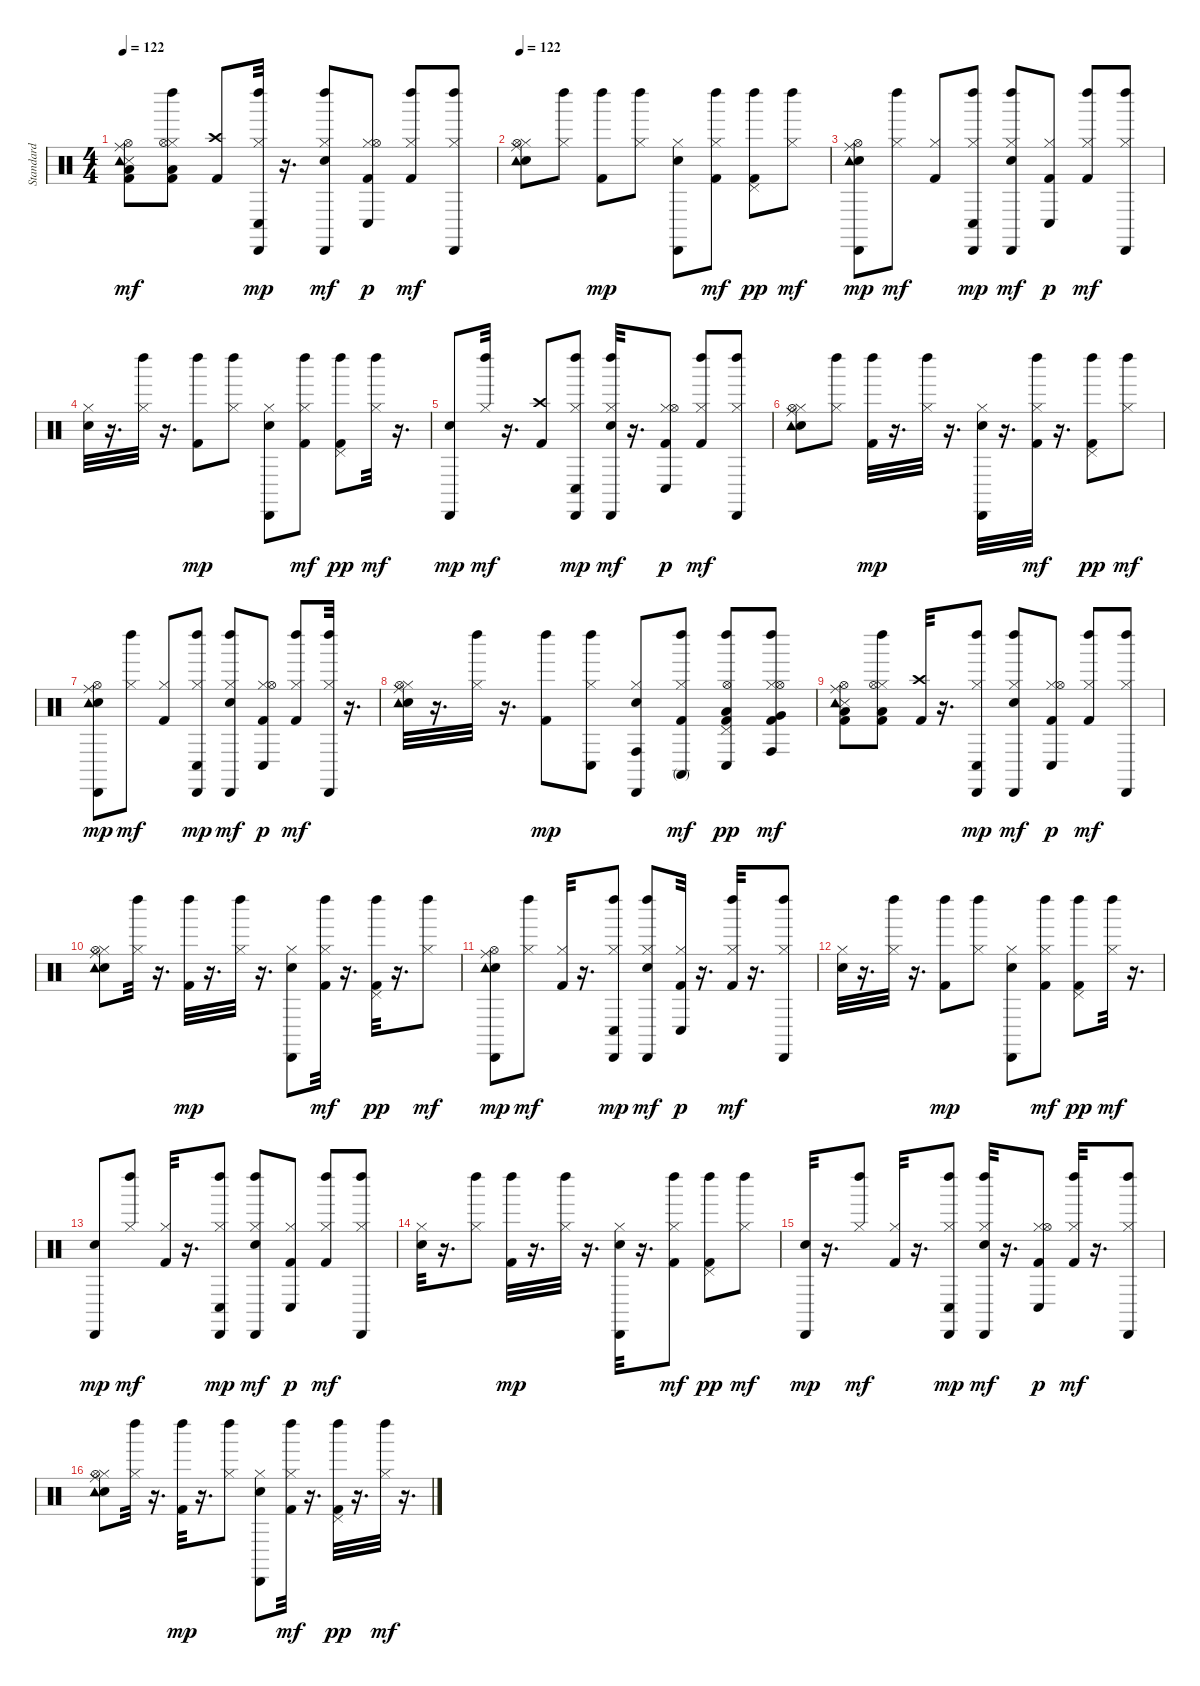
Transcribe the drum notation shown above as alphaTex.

\track (" Standard" " Standard") {instrument percussion}
\staff {score}
\articulation defaults
\ts (4 4)
\tempo 122
\clef neutral
\ks c
("Kick (hit) 2" "Snare (side stick) 3" "Low Floor Tom (hit)" "Hi-Hat (open)" "Ride (middle)" "Tambourine (hit)").8{dy mf} ("Kick (hit) 2" "Low Floor Tom (hit)" "Hi-Hat (closed)" "Hi-Hat (open)" "Left Maraca (hit)").8 ("Kick (hit) 2" "Crash high (hit)").8 ("Hi-Hat (closed)" "Conga low (hit)" "Cabasa (hit)" "Left Maraca (hit)").32{dy mp} r.16{d} ("Snare (hit) 2" "Hi-Hat (closed)" "Cabasa (hit)" "Left Maraca (hit)").8{dy mf} ("Kick (hit) 2" "Hi-Hat (closed)" "Hi-Hat (open)" "Conga low (hit)").8{dy p} ("Kick (hit) 2" "Hi-Hat (closed)" "Left Maraca (hit)").8{dy mf} ("Hi-Hat (closed)" "Cabasa (hit)" "Left Maraca (hit)").8 |
\tempo 122
("Snare (hit) 2" "Hi-Hat (closed)" "Hi-Hat (open)" "Ride (middle)" "Tambourine (hit)").8 ("Hi-Hat (closed)" "Left Maraca (hit)").8 ("Kick (hit) 2" "Left Maraca (hit)").8{dy mp} ("Hi-Hat (closed)" "Left Maraca (hit)").8 ("Snare (hit) 2" "Hi-Hat (closed)" "Cabasa (hit)").8 ("Kick (hit) 2" "Hi-Hat (closed)" "Left Maraca (hit)").8{dy mf} ("Kick (hit) 2" "Pedal Hi-Hat (hit)" "Left Maraca (hit)").8{dy pp} ("Hi-Hat (closed)" "Left Maraca (hit)").8{dy mf} |
("Snare (hit) 2" "Hi-Hat (open)" "Ride (middle)" "Tambourine (hit)" "Cabasa (hit)").8{dy mp} ("Hi-Hat (closed)" "Left Maraca (hit)").8{dy mf} ("Kick (hit) 2" "Hi-Hat (closed)").8 ("Hi-Hat (closed)" "Conga low (hit)" "Cabasa (hit)" "Left Maraca (hit)").8{dy mp} ("Snare (hit) 2" "Hi-Hat (closed)" "Cabasa (hit)" "Left Maraca (hit)").8{dy mf} ("Kick (hit) 2" "Hi-Hat (closed)" "Conga low (hit)").8{dy p} ("Kick (hit) 2" "Hi-Hat (closed)" "Left Maraca (hit)").8{dy mf} ("Hi-Hat (closed)" "Cabasa (hit)" "Left Maraca (hit)").8 |
("Snare (hit) 2" "Hi-Hat (closed)").32 r.16{d} ("Hi-Hat (closed)" "Left Maraca (hit)").32 r.16{d} ("Kick (hit) 2" "Left Maraca (hit)").8{dy mp} ("Hi-Hat (closed)" "Left Maraca (hit)").8 ("Snare (hit) 2" "Hi-Hat (closed)" "Cabasa (hit)").8 ("Kick (hit) 2" "Hi-Hat (closed)" "Left Maraca (hit)").8{dy mf} ("Kick (hit) 2" "Pedal Hi-Hat (hit)" "Left Maraca (hit)").8{dy pp} ("Hi-Hat (closed)" "Left Maraca (hit)").32{dy mf} r.16{d} |
("Snare (hit) 2" "Cabasa (hit)").8{dy mp} ("Hi-Hat (closed)" "Left Maraca (hit)").32{dy mf} r.16{d} ("Kick (hit) 2" "Crash high (hit)").8 ("Hi-Hat (closed)" "Conga low (hit)" "Cabasa (hit)" "Left Maraca (hit)").8{dy mp} ("Snare (hit) 2" "Hi-Hat (closed)" "Cabasa (hit)" "Left Maraca (hit)").32{dy mf} r.16{d} ("Kick (hit) 2" "Hi-Hat (closed)" "Hi-Hat (open)" "Conga low (hit)").8{dy p} ("Kick (hit) 2" "Hi-Hat (closed)" "Left Maraca (hit)").8{dy mf} ("Hi-Hat (closed)" "Cabasa (hit)" "Left Maraca (hit)").8 |
("Snare (hit) 2" "Hi-Hat (closed)" "Hi-Hat (open)" "Ride (middle)" "Tambourine (hit)").8 ("Hi-Hat (closed)" "Left Maraca (hit)").8 ("Kick (hit) 2" "Left Maraca (hit)").32{dy mp} r.16{d} ("Hi-Hat (closed)" "Left Maraca (hit)").32 r.16{d} ("Snare (hit) 2" "Hi-Hat (closed)" "Cabasa (hit)").32 r.16{d} ("Kick (hit) 2" "Hi-Hat (closed)" "Left Maraca (hit)").32{dy mf} r.16{d} ("Kick (hit) 2" "Pedal Hi-Hat (hit)" "Left Maraca (hit)").8{dy pp} ("Hi-Hat (closed)" "Left Maraca (hit)").8{dy mf} |
("Snare (hit) 2" "Hi-Hat (open)" "Ride (middle)" "Tambourine (hit)" "Cabasa (hit)").8{dy mp} ("Hi-Hat (closed)" "Left Maraca (hit)").8{dy mf} ("Kick (hit) 2" "Hi-Hat (closed)").8 ("Hi-Hat (closed)" "Conga low (hit)" "Cabasa (hit)" "Left Maraca (hit)").8{dy mp} ("Snare (hit) 2" "Hi-Hat (closed)" "Cabasa (hit)" "Left Maraca (hit)").8{dy mf} ("Kick (hit) 2" "Hi-Hat (closed)" "Hi-Hat (open)" "Conga low (hit)").8{dy p} ("Kick (hit) 2" "Hi-Hat (closed)" "Left Maraca (hit)").8{dy mf} ("Hi-Hat (closed)" "Cabasa (hit)" "Left Maraca (hit)").32 r.16{d} |
("Snare (hit) 2" "Hi-Hat (closed)" "Hi-Hat (open)" "Ride (middle)" "Tambourine (hit)").32 r.16{d} ("Hi-Hat (closed)" "Left Maraca (hit)").32 r.16{d} ("Kick (hit) 2" "Left Maraca (hit)").8{dy mp} ("Hi-Hat (closed)" "Conga low (hit)" "Left Maraca (hit)").8 ("Snare (hit) 2" "Hi-Hat (closed)" "Conga high (hit)" "Cabasa (hit)").8 ("Kick (hit) 2" "Hi-Hat (closed)" "Conga high (mute)" "Left Maraca (hit)").8{dy mf} ("Kick (hit) 2" "Low Floor Tom (hit)" "Pedal Hi-Hat (hit)" "Hi-Hat (open)" "Conga low (hit)" "Left Maraca (hit)").8{dy pp} ("Kick (hit) 2" "Hi-Hat (closed)" "Very Low Tom (hit)" "Hi-Hat (open)" "Conga high (hit)" "Left Maraca (hit)").8{dy mf} |
("Kick (hit) 2" "Snare (side stick) 3" "Low Floor Tom (hit)" "Hi-Hat (open)" "Ride (middle)" "Tambourine (hit)").8 ("Kick (hit) 2" "Low Floor Tom (hit)" "Hi-Hat (closed)" "Hi-Hat (open)" "Left Maraca (hit)").8 ("Kick (hit) 2" "Crash high (hit)").32 r.16{d} ("Hi-Hat (closed)" "Conga low (hit)" "Cabasa (hit)" "Left Maraca (hit)").8{dy mp} ("Snare (hit) 2" "Hi-Hat (closed)" "Cabasa (hit)" "Left Maraca (hit)").8{dy mf} ("Kick (hit) 2" "Hi-Hat (closed)" "Hi-Hat (open)" "Conga low (hit)").8{dy p} ("Kick (hit) 2" "Hi-Hat (closed)" "Left Maraca (hit)").8{dy mf} ("Hi-Hat (closed)" "Cabasa (hit)" "Left Maraca (hit)").8 |
("Snare (hit) 2" "Hi-Hat (closed)" "Hi-Hat (open)" "Ride (middle)" "Tambourine (hit)").8 ("Hi-Hat (closed)" "Left Maraca (hit)").32 r.16{d} ("Kick (hit) 2" "Left Maraca (hit)").32{dy mp} r.16{d} ("Hi-Hat (closed)" "Left Maraca (hit)").32 r.16{d} ("Snare (hit) 2" "Hi-Hat (closed)" "Cabasa (hit)").8 ("Kick (hit) 2" "Hi-Hat (closed)" "Left Maraca (hit)").32{dy mf} r.16{d} ("Kick (hit) 2" "Pedal Hi-Hat (hit)" "Left Maraca (hit)").32{dy pp} r.16{d} ("Hi-Hat (closed)" "Left Maraca (hit)").8{dy mf} |
("Snare (hit) 2" "Hi-Hat (open)" "Ride (middle)" "Tambourine (hit)" "Cabasa (hit)").8{dy mp} ("Hi-Hat (closed)" "Left Maraca (hit)").8{dy mf} ("Kick (hit) 2" "Hi-Hat (closed)").32 r.16{d} ("Hi-Hat (closed)" "Conga low (hit)" "Cabasa (hit)" "Left Maraca (hit)").8{dy mp} ("Snare (hit) 2" "Hi-Hat (closed)" "Cabasa (hit)" "Left Maraca (hit)").8{dy mf} ("Kick (hit) 2" "Hi-Hat (closed)" "Conga low (hit)").32{dy p} r.16{d} ("Kick (hit) 2" "Hi-Hat (closed)" "Left Maraca (hit)").32{dy mf} r.16{d} ("Hi-Hat (closed)" "Cabasa (hit)" "Left Maraca (hit)").8 |
("Snare (hit) 2" "Hi-Hat (closed)").32 r.16{d} ("Hi-Hat (closed)" "Left Maraca (hit)").32 r.16{d} ("Kick (hit) 2" "Left Maraca (hit)").8{dy mp} ("Hi-Hat (closed)" "Left Maraca (hit)").8 ("Snare (hit) 2" "Hi-Hat (closed)" "Cabasa (hit)").8 ("Kick (hit) 2" "Hi-Hat (closed)" "Left Maraca (hit)").8{dy mf} ("Kick (hit) 2" "Pedal Hi-Hat (hit)" "Left Maraca (hit)").8{dy pp} ("Hi-Hat (closed)" "Left Maraca (hit)").32{dy mf} r.16{d} |
("Snare (hit) 2" "Cabasa (hit)").8{dy mp} ("Hi-Hat (closed)" "Left Maraca (hit)").8{dy mf} ("Kick (hit) 2" "Hi-Hat (closed)").32 r.16{d} ("Hi-Hat (closed)" "Conga low (hit)" "Cabasa (hit)" "Left Maraca (hit)").8{dy mp} ("Snare (hit) 2" "Hi-Hat (closed)" "Cabasa (hit)" "Left Maraca (hit)").8{dy mf} ("Kick (hit) 2" "Hi-Hat (closed)" "Conga low (hit)").8{dy p} ("Kick (hit) 2" "Hi-Hat (closed)" "Left Maraca (hit)").8{dy mf} ("Hi-Hat (closed)" "Cabasa (hit)" "Left Maraca (hit)").8 |
("Snare (hit) 2" "Hi-Hat (closed)").32 r.16{d} ("Hi-Hat (closed)" "Left Maraca (hit)").8 ("Kick (hit) 2" "Left Maraca (hit)").32{dy mp} r.16{d} ("Hi-Hat (closed)" "Left Maraca (hit)").32 r.16{d} ("Snare (hit) 2" "Hi-Hat (closed)" "Cabasa (hit)").32 r.16{d} ("Kick (hit) 2" "Hi-Hat (closed)" "Left Maraca (hit)").8{dy mf} ("Kick (hit) 2" "Pedal Hi-Hat (hit)" "Left Maraca (hit)").8{dy pp} ("Hi-Hat (closed)" "Left Maraca (hit)").8{dy mf} |
("Snare (hit) 2" "Cabasa (hit)").32{dy mp} r.16{d} ("Hi-Hat (closed)" "Left Maraca (hit)").8{dy mf} ("Kick (hit) 2" "Hi-Hat (closed)").32 r.16{d} ("Hi-Hat (closed)" "Conga low (hit)" "Cabasa (hit)" "Left Maraca (hit)").8{dy mp} ("Snare (hit) 2" "Hi-Hat (closed)" "Cabasa (hit)" "Left Maraca (hit)").32{dy mf} r.16{d} ("Kick (hit) 2" "Hi-Hat (closed)" "Hi-Hat (open)" "Conga low (hit)").8{dy p} ("Kick (hit) 2" "Hi-Hat (closed)" "Left Maraca (hit)").32{dy mf} r.16{d} ("Hi-Hat (closed)" "Cabasa (hit)" "Left Maraca (hit)").8 |
("Snare (hit) 2" "Hi-Hat (closed)" "Hi-Hat (open)" "Ride (middle)" "Tambourine (hit)").8 ("Hi-Hat (closed)" "Left Maraca (hit)").32 r.16{d} ("Kick (hit) 2" "Left Maraca (hit)").32{dy mp} r.16{d} ("Hi-Hat (closed)" "Left Maraca (hit)").8 ("Snare (hit) 2" "Hi-Hat (closed)" "Cabasa (hit)").8 ("Kick (hit) 2" "Hi-Hat (closed)" "Left Maraca (hit)").32{dy mf} r.16{d} ("Kick (hit) 2" "Pedal Hi-Hat (hit)" "Left Maraca (hit)").32{dy pp} r.16{d} ("Hi-Hat (closed)" "Left Maraca (hit)").32{dy mf} r.16{d}
